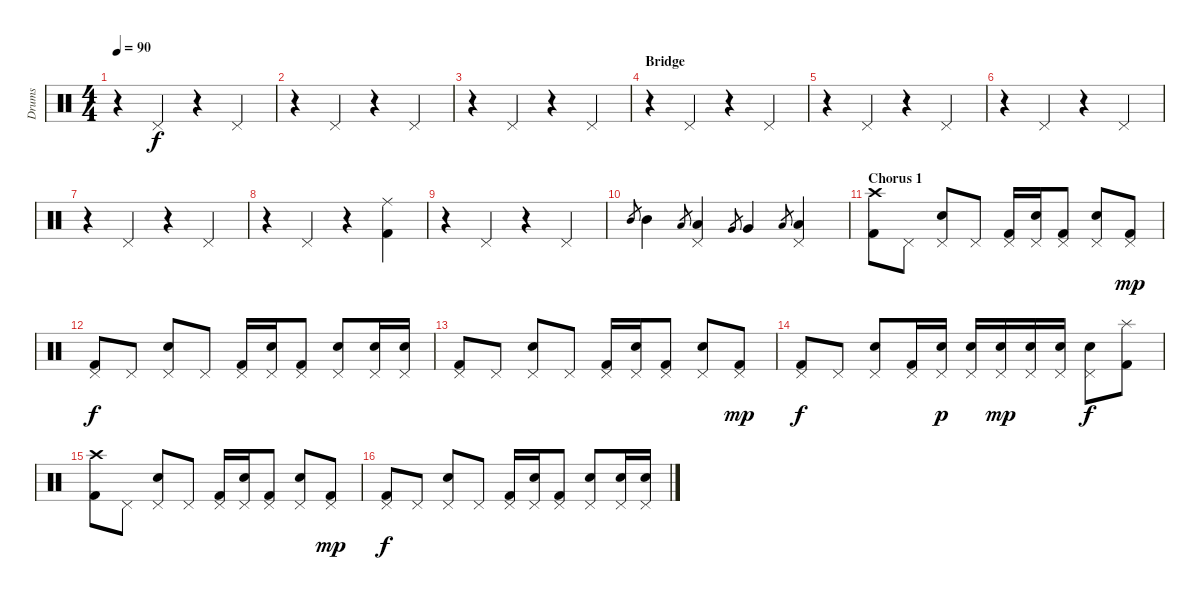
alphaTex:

\track ("Drums" "Drums") {instrument percussion}
\staff {score}
\articulation defaults
\ts (4 4)
\tempo 90
\clef neutral
\ks c
r.4{dy f} "Pedal Hi-Hat (hit)".4 r.4 "Pedal Hi-Hat (hit)".4 |
r.4 "Pedal Hi-Hat (hit)".4 r.4 "Pedal Hi-Hat (hit)".4 |
r.4 "Pedal Hi-Hat (hit)".4 r.4 "Pedal Hi-Hat (hit)".4 |
\section ("" "Bridge")
r.4 "Pedal Hi-Hat (hit)".4 r.4 "Pedal Hi-Hat (hit)".4 |
r.4 "Pedal Hi-Hat (hit)".4 r.4 "Pedal Hi-Hat (hit)".4 |
r.4 "Pedal Hi-Hat (hit)".4 r.4 "Pedal Hi-Hat (hit)".4 |
r.4 "Pedal Hi-Hat (hit)".4 r.4 "Pedal Hi-Hat (hit)".4 |
r.4 "Pedal Hi-Hat (hit)".4 r.4 ("Ride (middle)" "Kick (hit) 2").4 |
r.4 "Pedal Hi-Hat (hit)".4 r.4 "Pedal Hi-Hat (hit)".4 |
"Mid Tom (hit)".8{gr} "Mid Tom (hit)".4 "Low Tom (hit)".8{gr} ("Pedal Hi-Hat (hit)" "Low Tom (hit)").4 "Very Low Tom (hit)".8{gr} "Very Low Tom (hit)".4 "Low Floor Tom (hit)".8{gr} ("Pedal Hi-Hat (hit)" "Low Floor Tom (hit)").4 |
\section ("" "Chorus 1")
("Crash high (hit)" "Kick (hit) 2").8 "Pedal Hi-Hat (hit)".8 ("Pedal Hi-Hat (hit)" "Electric Snare (hit)").8 "Pedal Hi-Hat (hit)".8 ("Pedal Hi-Hat (hit)" "Kick (hit) 2").16 ("Pedal Hi-Hat (hit)" "Electric Snare (hit)").16 ("Pedal Hi-Hat (hit)" "Kick (hit) 2").8 ("Pedal Hi-Hat (hit)" "Electric Snare (hit)").8 ("Pedal Hi-Hat (hit)" "Kick (hit) 2").8{dy mp} |
("Pedal Hi-Hat (hit)" "Kick (hit) 2").8{dy f} "Pedal Hi-Hat (hit)".8 ("Pedal Hi-Hat (hit)" "Electric Snare (hit)").8 "Pedal Hi-Hat (hit)".8 ("Pedal Hi-Hat (hit)" "Kick (hit) 2").16 ("Pedal Hi-Hat (hit)" "Electric Snare (hit)").16 ("Pedal Hi-Hat (hit)" "Kick (hit) 2").8 ("Pedal Hi-Hat (hit)" "Electric Snare (hit)").8 ("Pedal Hi-Hat (hit)" "Electric Snare (hit)").16 ("Pedal Hi-Hat (hit)" "Electric Snare (hit)").16 |
("Pedal Hi-Hat (hit)" "Kick (hit) 2").8 "Pedal Hi-Hat (hit)".8 ("Pedal Hi-Hat (hit)" "Electric Snare (hit)").8 "Pedal Hi-Hat (hit)".8 ("Pedal Hi-Hat (hit)" "Kick (hit) 2").16 ("Pedal Hi-Hat (hit)" "Electric Snare (hit)").16 ("Pedal Hi-Hat (hit)" "Kick (hit) 2").8 ("Pedal Hi-Hat (hit)" "Electric Snare (hit)").8 ("Pedal Hi-Hat (hit)" "Kick (hit) 2").8{dy mp} |
("Pedal Hi-Hat (hit)" "Kick (hit) 2").8{dy f} "Pedal Hi-Hat (hit)".8 ("Pedal Hi-Hat (hit)" "Electric Snare (hit)").8 ("Pedal Hi-Hat (hit)" "Kick (hit) 2").16 ("Pedal Hi-Hat (hit)" "Electric Snare (hit)").16{dy p} ("Pedal Hi-Hat (hit)" "Electric Snare (hit)").16 ("Pedal Hi-Hat (hit)" "Electric Snare (hit)").16{dy mp} ("Pedal Hi-Hat (hit)" "Electric Snare (hit)").16 ("Pedal Hi-Hat (hit)" "Electric Snare (hit)").16 ("Pedal Hi-Hat (hit)" "Electric Snare (hit)").8{dy f} ("Splash (hit)" "Kick (hit) 2").8 |
("Crash high (hit)" "Kick (hit) 2").8 "Pedal Hi-Hat (hit)".8 ("Pedal Hi-Hat (hit)" "Electric Snare (hit)").8 "Pedal Hi-Hat (hit)".8 ("Pedal Hi-Hat (hit)" "Kick (hit) 2").16 ("Pedal Hi-Hat (hit)" "Electric Snare (hit)").16 ("Pedal Hi-Hat (hit)" "Kick (hit) 2").8 ("Pedal Hi-Hat (hit)" "Electric Snare (hit)").8 ("Pedal Hi-Hat (hit)" "Kick (hit) 2").8{dy mp} |
("Pedal Hi-Hat (hit)" "Kick (hit) 2").8{dy f} "Pedal Hi-Hat (hit)".8 ("Pedal Hi-Hat (hit)" "Electric Snare (hit)").8 "Pedal Hi-Hat (hit)".8 ("Pedal Hi-Hat (hit)" "Kick (hit) 2").16 ("Pedal Hi-Hat (hit)" "Electric Snare (hit)").16 ("Pedal Hi-Hat (hit)" "Kick (hit) 2").8 ("Pedal Hi-Hat (hit)" "Electric Snare (hit)").8 ("Pedal Hi-Hat (hit)" "Electric Snare (hit)").16 ("Pedal Hi-Hat (hit)" "Electric Snare (hit)").16
